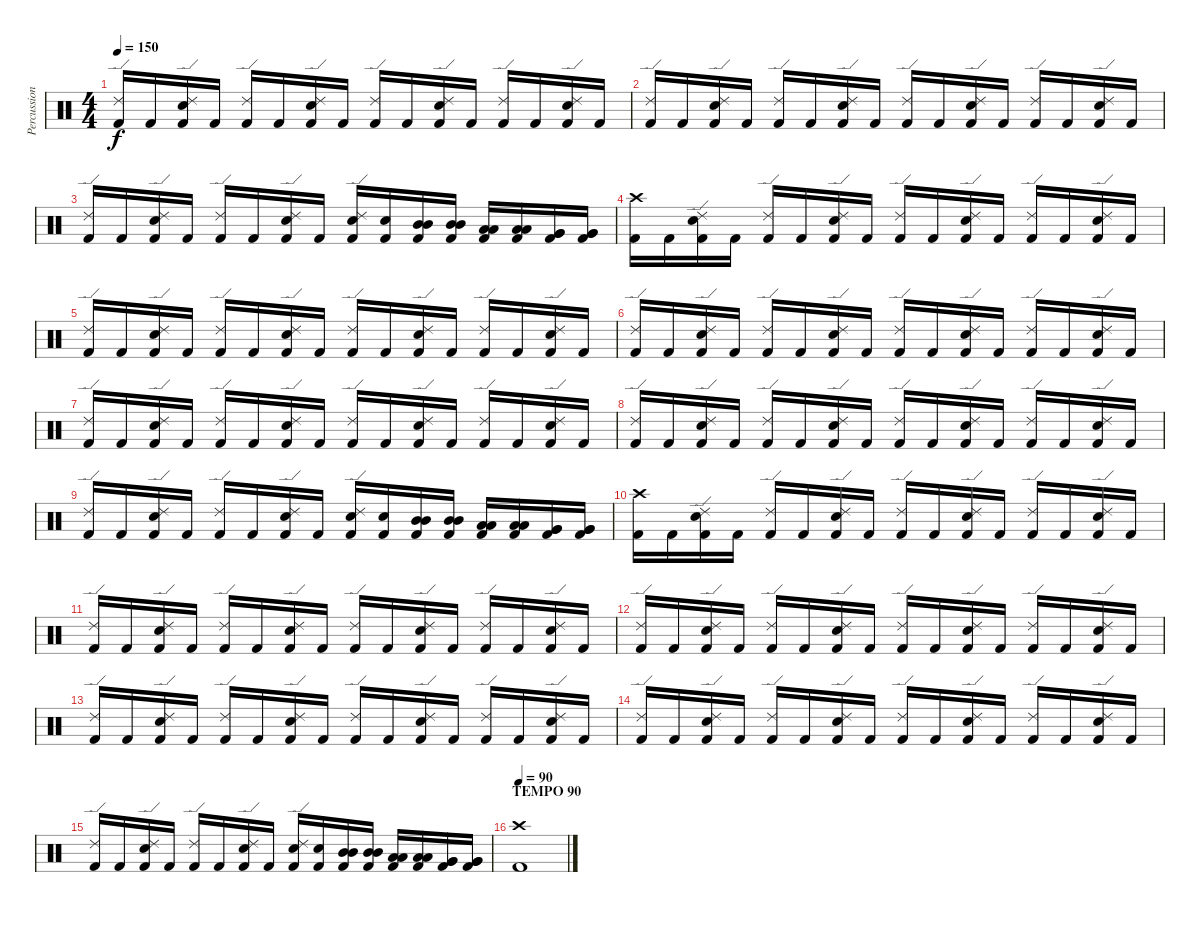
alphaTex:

\track ("Percussion" "Percussion") {instrument percussion}
\staff {score}
\articulation defaults
\ts (4 4)
\tempo 150
\clef neutral
\ks c
("Kick (hit) 2" "Ride (edge) 2").16{dy f} "Kick (hit) 2".16 ("Kick (hit) 2" "Snare (hit) 2" "Ride (edge) 2").16 "Kick (hit) 2".16 ("Kick (hit) 2" "Ride (edge) 2").16 "Kick (hit) 2".16 ("Kick (hit) 2" "Snare (hit) 2" "Ride (edge) 2").16 "Kick (hit) 2".16 ("Kick (hit) 2" "Ride (edge) 2").16 "Kick (hit) 2".16 ("Kick (hit) 2" "Snare (hit) 2" "Ride (edge) 2").16 "Kick (hit) 2".16 ("Kick (hit) 2" "Ride (edge) 2").16 "Kick (hit) 2".16 ("Kick (hit) 2" "Snare (hit) 2" "Ride (edge) 2").16 "Kick (hit) 2".16 |
("Kick (hit) 2" "Ride (edge) 2").16 "Kick (hit) 2".16 ("Kick (hit) 2" "Snare (hit) 2" "Ride (edge) 2").16 "Kick (hit) 2".16 ("Kick (hit) 2" "Ride (edge) 2").16 "Kick (hit) 2".16 ("Kick (hit) 2" "Snare (hit) 2" "Ride (edge) 2").16 "Kick (hit) 2".16 ("Kick (hit) 2" "Ride (edge) 2").16 "Kick (hit) 2".16 ("Kick (hit) 2" "Snare (hit) 2" "Ride (edge) 2").16 "Kick (hit) 2".16 ("Kick (hit) 2" "Ride (edge) 2").16 "Kick (hit) 2".16 ("Kick (hit) 2" "Snare (hit) 2" "Ride (edge) 2").16 "Kick (hit) 2".16 |
("Kick (hit) 2" "Ride (edge) 2").16 "Kick (hit) 2".16 ("Kick (hit) 2" "Snare (hit) 2" "Ride (edge) 2").16 "Kick (hit) 2".16 ("Kick (hit) 2" "Ride (edge) 2").16 "Kick (hit) 2".16 ("Kick (hit) 2" "Snare (hit) 2" "Ride (edge) 2").16 "Kick (hit) 2".16 ("Kick (hit) 2" "Snare (hit) 2" "Ride (edge) 2").16 ("Kick (hit) 2" "Snare (hit) 2").16 ("Kick (hit) 2" "Mid Tom (hit)" "Mid Tom (hit)").16 ("Kick (hit) 2" "Mid Tom (hit)" "Mid Tom (hit)").16 ("Kick (hit) 2" "Low Tom (hit)" "Low Tom (hit)").16 ("Kick (hit) 2" "Low Tom (hit)" "Low Tom (hit)").16 ("Kick (hit) 2" "Very Low Tom (hit)" "Very Low Tom (hit)").16 ("Kick (hit) 2" "Very Low Tom (hit)" "Very Low Tom (hit)").16 |
("Kick (hit) 2" "Crash high (hit)").16 "Kick (hit) 2".16 ("Kick (hit) 2" "Snare (hit) 2" "Ride (edge) 2").16 "Kick (hit) 2".16 ("Kick (hit) 2" "Ride (edge) 2").16 "Kick (hit) 2".16 ("Kick (hit) 2" "Snare (hit) 2" "Ride (edge) 2").16 "Kick (hit) 2".16 ("Kick (hit) 2" "Ride (edge) 2").16 "Kick (hit) 2".16 ("Kick (hit) 2" "Snare (hit) 2" "Ride (edge) 2").16 "Kick (hit) 2".16 ("Kick (hit) 2" "Ride (edge) 2").16 "Kick (hit) 2".16 ("Kick (hit) 2" "Snare (hit) 2" "Ride (edge) 2").16 "Kick (hit) 2".16 |
("Kick (hit) 2" "Ride (edge) 2").16 "Kick (hit) 2".16 ("Kick (hit) 2" "Snare (hit) 2" "Ride (edge) 2").16 "Kick (hit) 2".16 ("Kick (hit) 2" "Ride (edge) 2").16 "Kick (hit) 2".16 ("Kick (hit) 2" "Snare (hit) 2" "Ride (edge) 2").16 "Kick (hit) 2".16 ("Kick (hit) 2" "Ride (edge) 2").16 "Kick (hit) 2".16 ("Kick (hit) 2" "Snare (hit) 2" "Ride (edge) 2").16 "Kick (hit) 2".16 ("Kick (hit) 2" "Ride (edge) 2").16 "Kick (hit) 2".16 ("Kick (hit) 2" "Snare (hit) 2" "Ride (edge) 2").16 "Kick (hit) 2".16 |
("Kick (hit) 2" "Ride (edge) 2").16 "Kick (hit) 2".16 ("Kick (hit) 2" "Snare (hit) 2" "Ride (edge) 2").16 "Kick (hit) 2".16 ("Kick (hit) 2" "Ride (edge) 2").16 "Kick (hit) 2".16 ("Kick (hit) 2" "Snare (hit) 2" "Ride (edge) 2").16 "Kick (hit) 2".16 ("Kick (hit) 2" "Ride (edge) 2").16 "Kick (hit) 2".16 ("Kick (hit) 2" "Snare (hit) 2" "Ride (edge) 2").16 "Kick (hit) 2".16 ("Kick (hit) 2" "Ride (edge) 2").16 "Kick (hit) 2".16 ("Kick (hit) 2" "Snare (hit) 2" "Ride (edge) 2").16 "Kick (hit) 2".16 |
("Kick (hit) 2" "Ride (edge) 2").16 "Kick (hit) 2".16 ("Kick (hit) 2" "Snare (hit) 2" "Ride (edge) 2").16 "Kick (hit) 2".16 ("Kick (hit) 2" "Ride (edge) 2").16 "Kick (hit) 2".16 ("Kick (hit) 2" "Snare (hit) 2" "Ride (edge) 2").16 "Kick (hit) 2".16 ("Kick (hit) 2" "Ride (edge) 2").16 "Kick (hit) 2".16 ("Kick (hit) 2" "Snare (hit) 2" "Ride (edge) 2").16 "Kick (hit) 2".16 ("Kick (hit) 2" "Ride (edge) 2").16 "Kick (hit) 2".16 ("Kick (hit) 2" "Snare (hit) 2" "Ride (edge) 2").16 "Kick (hit) 2".16 |
("Kick (hit) 2" "Ride (edge) 2").16 "Kick (hit) 2".16 ("Kick (hit) 2" "Snare (hit) 2" "Ride (edge) 2").16 "Kick (hit) 2".16 ("Kick (hit) 2" "Ride (edge) 2").16 "Kick (hit) 2".16 ("Kick (hit) 2" "Snare (hit) 2" "Ride (edge) 2").16 "Kick (hit) 2".16 ("Kick (hit) 2" "Ride (edge) 2").16 "Kick (hit) 2".16 ("Kick (hit) 2" "Snare (hit) 2" "Ride (edge) 2").16 "Kick (hit) 2".16 ("Kick (hit) 2" "Ride (edge) 2").16 "Kick (hit) 2".16 ("Kick (hit) 2" "Snare (hit) 2" "Ride (edge) 2").16 "Kick (hit) 2".16 |
("Kick (hit) 2" "Ride (edge) 2").16 "Kick (hit) 2".16 ("Kick (hit) 2" "Snare (hit) 2" "Ride (edge) 2").16 "Kick (hit) 2".16 ("Kick (hit) 2" "Ride (edge) 2").16 "Kick (hit) 2".16 ("Kick (hit) 2" "Snare (hit) 2" "Ride (edge) 2").16 "Kick (hit) 2".16 ("Kick (hit) 2" "Snare (hit) 2" "Ride (edge) 2").16 ("Kick (hit) 2" "Snare (hit) 2").16 ("Kick (hit) 2" "Mid Tom (hit)" "Mid Tom (hit)").16 ("Kick (hit) 2" "Mid Tom (hit)" "Mid Tom (hit)").16 ("Kick (hit) 2" "Low Tom (hit)" "Low Tom (hit)").16 ("Kick (hit) 2" "Low Tom (hit)" "Low Tom (hit)").16 ("Kick (hit) 2" "Very Low Tom (hit)" "Very Low Tom (hit)").16 ("Kick (hit) 2" "Very Low Tom (hit)" "Very Low Tom (hit)").16 |
("Kick (hit) 2" "Crash high (hit)").16 "Kick (hit) 2".16 ("Kick (hit) 2" "Snare (hit) 2" "Ride (edge) 2").16 "Kick (hit) 2".16 ("Kick (hit) 2" "Ride (edge) 2").16 "Kick (hit) 2".16 ("Kick (hit) 2" "Snare (hit) 2" "Ride (edge) 2").16 "Kick (hit) 2".16 ("Kick (hit) 2" "Ride (edge) 2").16 "Kick (hit) 2".16 ("Kick (hit) 2" "Snare (hit) 2" "Ride (edge) 2").16 "Kick (hit) 2".16 ("Kick (hit) 2" "Ride (edge) 2").16 "Kick (hit) 2".16 ("Kick (hit) 2" "Snare (hit) 2" "Ride (edge) 2").16 "Kick (hit) 2".16 |
("Kick (hit) 2" "Ride (edge) 2").16 "Kick (hit) 2".16 ("Kick (hit) 2" "Snare (hit) 2" "Ride (edge) 2").16 "Kick (hit) 2".16 ("Kick (hit) 2" "Ride (edge) 2").16 "Kick (hit) 2".16 ("Kick (hit) 2" "Snare (hit) 2" "Ride (edge) 2").16 "Kick (hit) 2".16 ("Kick (hit) 2" "Ride (edge) 2").16 "Kick (hit) 2".16 ("Kick (hit) 2" "Snare (hit) 2" "Ride (edge) 2").16 "Kick (hit) 2".16 ("Kick (hit) 2" "Ride (edge) 2").16 "Kick (hit) 2".16 ("Kick (hit) 2" "Snare (hit) 2" "Ride (edge) 2").16 "Kick (hit) 2".16 |
("Kick (hit) 2" "Ride (edge) 2").16 "Kick (hit) 2".16 ("Kick (hit) 2" "Snare (hit) 2" "Ride (edge) 2").16 "Kick (hit) 2".16 ("Kick (hit) 2" "Ride (edge) 2").16 "Kick (hit) 2".16 ("Kick (hit) 2" "Snare (hit) 2" "Ride (edge) 2").16 "Kick (hit) 2".16 ("Kick (hit) 2" "Ride (edge) 2").16 "Kick (hit) 2".16 ("Kick (hit) 2" "Snare (hit) 2" "Ride (edge) 2").16 "Kick (hit) 2".16 ("Kick (hit) 2" "Ride (edge) 2").16 "Kick (hit) 2".16 ("Kick (hit) 2" "Snare (hit) 2" "Ride (edge) 2").16 "Kick (hit) 2".16 |
("Kick (hit) 2" "Ride (edge) 2").16 "Kick (hit) 2".16 ("Kick (hit) 2" "Snare (hit) 2" "Ride (edge) 2").16 "Kick (hit) 2".16 ("Kick (hit) 2" "Ride (edge) 2").16 "Kick (hit) 2".16 ("Kick (hit) 2" "Snare (hit) 2" "Ride (edge) 2").16 "Kick (hit) 2".16 ("Kick (hit) 2" "Ride (edge) 2").16 "Kick (hit) 2".16 ("Kick (hit) 2" "Snare (hit) 2" "Ride (edge) 2").16 "Kick (hit) 2".16 ("Kick (hit) 2" "Ride (edge) 2").16 "Kick (hit) 2".16 ("Kick (hit) 2" "Snare (hit) 2" "Ride (edge) 2").16 "Kick (hit) 2".16 |
("Kick (hit) 2" "Ride (edge) 2").16 "Kick (hit) 2".16 ("Kick (hit) 2" "Snare (hit) 2" "Ride (edge) 2").16 "Kick (hit) 2".16 ("Kick (hit) 2" "Ride (edge) 2").16 "Kick (hit) 2".16 ("Kick (hit) 2" "Snare (hit) 2" "Ride (edge) 2").16 "Kick (hit) 2".16 ("Kick (hit) 2" "Ride (edge) 2").16 "Kick (hit) 2".16 ("Kick (hit) 2" "Snare (hit) 2" "Ride (edge) 2").16 "Kick (hit) 2".16 ("Kick (hit) 2" "Ride (edge) 2").16 "Kick (hit) 2".16 ("Kick (hit) 2" "Snare (hit) 2" "Ride (edge) 2").16 "Kick (hit) 2".16 |
("Kick (hit) 2" "Ride (edge) 2").16 "Kick (hit) 2".16 ("Kick (hit) 2" "Snare (hit) 2" "Ride (edge) 2").16 "Kick (hit) 2".16 ("Kick (hit) 2" "Ride (edge) 2").16 "Kick (hit) 2".16 ("Kick (hit) 2" "Snare (hit) 2" "Ride (edge) 2").16 "Kick (hit) 2".16 ("Kick (hit) 2" "Snare (hit) 2" "Ride (edge) 2").16 ("Kick (hit) 2" "Snare (hit) 2").16 ("Kick (hit) 2" "Mid Tom (hit)" "Mid Tom (hit)").16 ("Kick (hit) 2" "Mid Tom (hit)" "Mid Tom (hit)").16 ("Kick (hit) 2" "Low Tom (hit)" "Low Tom (hit)").16 ("Kick (hit) 2" "Low Tom (hit)" "Low Tom (hit)").16 ("Kick (hit) 2" "Very Low Tom (hit)" "Very Low Tom (hit)").16 ("Kick (hit) 2" "Very Low Tom (hit)" "Very Low Tom (hit)").16 |
\section ("" "TEMPO 90")
\tempo 90
("Kick (hit) 2" "Crash high (hit)").1
